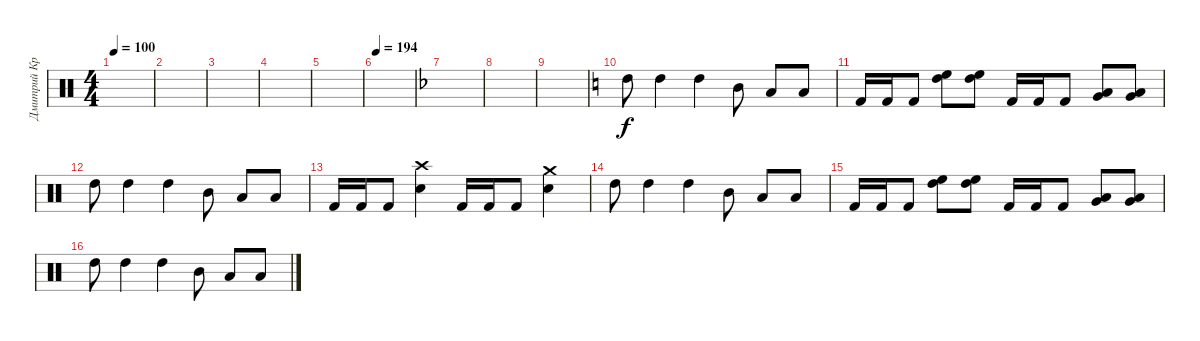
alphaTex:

\track ("Дмитрий Кривенков" "Дмитрий Кр") {instrument percussion}
\staff {score}
\articulation defaults
\ts (4 4)
\tempo 100
\clef neutral
\ks c
|
|
|
|
|
\tempo 194
|
\ks f
|
|
|
\ks c "High Tom (hit)".8 "High Tom (hit)".4 "High Tom (hit)".4 "Mid Tom (hit)".8 "Low Tom (hit)".8 "Low Tom (hit)".8
|
"Kick (hit) 2".16 "Kick (hit) 2".16 "Kick (hit) 2".8 ("High Floor Tom (hit)" "High Tom (hit)").8 ("High Tom (hit)" "High Floor Tom (hit)").8 "Kick (hit) 2".16 "Kick (hit) 2".16 "Kick (hit) 2".8 ("Very Low Tom (hit)" "Low Tom (hit)").8 ("Very Low Tom (hit)" "Low Tom (hit)").8 |
"High Tom (hit)".8 "High Tom (hit)".4 "High Tom (hit)".4 "Mid Tom (hit)".8 "Low Tom (hit)".8 "Low Tom (hit)".8 |
"Kick (hit) 2".16 "Kick (hit) 2".16 "Kick (hit) 2".8 ("Crash high (hit)" "Electric Snare (hit)").4 "Kick (hit) 2".16 "Kick (hit) 2".16 "Kick (hit) 2".8 ("Crash medium (hit)" "Electric Snare (hit)").4 |
"High Tom (hit)".8 "High Tom (hit)".4 "High Tom (hit)".4 "Mid Tom (hit)".8 "Low Tom (hit)".8 "Low Tom (hit)".8 |
"Kick (hit) 2".16 "Kick (hit) 2".16 "Kick (hit) 2".8 ("High Tom (hit)" "High Floor Tom (hit)").8 ("High Tom (hit)" "High Floor Tom (hit)").8 "Kick (hit) 2".16 "Kick (hit) 2".16 "Kick (hit) 2".8 ("Low Tom (hit)" "Very Low Tom (hit)").8 ("Low Tom (hit)" "Very Low Tom (hit)").8 |
"High Tom (hit)".8 "High Tom (hit)".4 "High Tom (hit)".4 "Mid Tom (hit)".8 "Low Tom (hit)".8 "Low Tom (hit)".8
